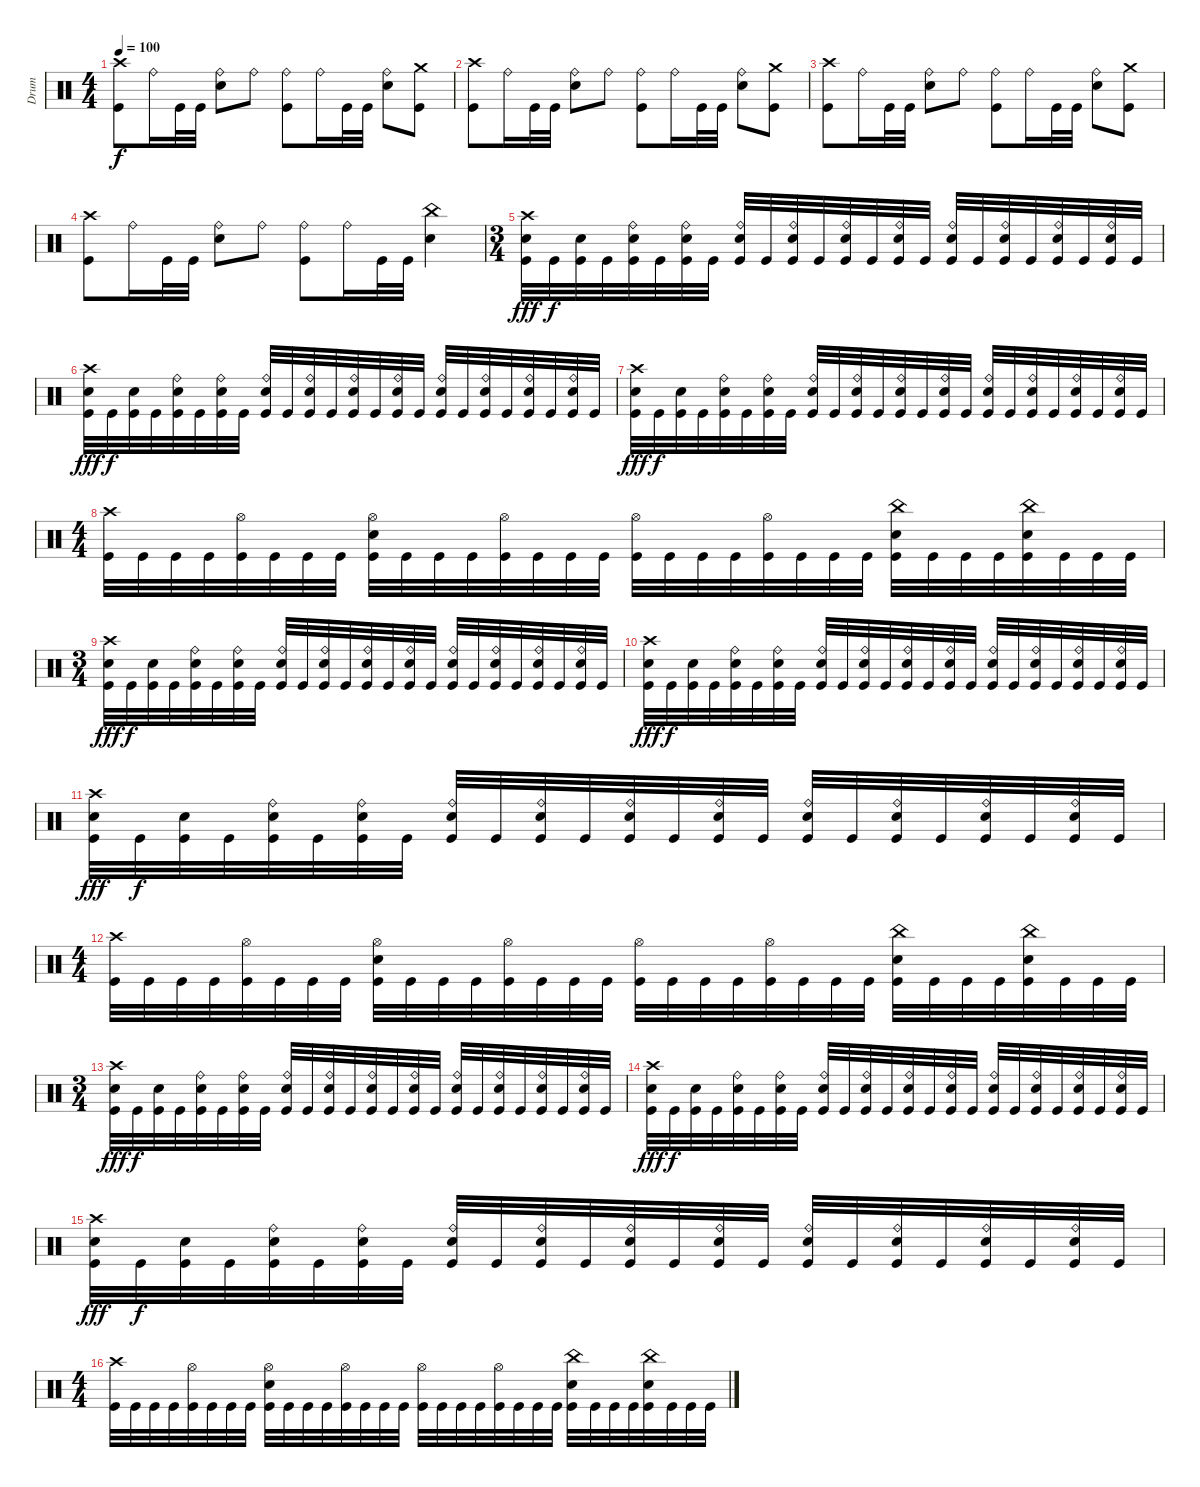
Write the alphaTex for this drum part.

\track ("Drum" "Drum") {instrument percussion}
\staff {score}
\articulation defaults
\ts (4 4)
\tempo 100
\clef neutral
\ks c
("Crash high (hit)" "Kick (hit)").8{dy f} "Ride (bell)".16 "Kick (hit)".32 "Kick (hit)".32 ("Ride (bell)" "Electric Snare (hit)").8 "Ride (bell)".8 ("Ride (bell)" "Kick (hit)").8 "Ride (bell)".16 "Kick (hit)".32 "Kick (hit)".32 ("Ride (bell)" "Electric Snare (hit)").8 ("Crash medium (hit)" "Kick (hit)").8 |
("Crash high (hit)" "Kick (hit)").8 "Ride (bell)".16 "Kick (hit)".32 "Kick (hit)".32 ("Ride (bell)" "Electric Snare (hit)").8 "Ride (bell)".8 ("Ride (bell)" "Kick (hit)").8 "Ride (bell)".16 "Kick (hit)".32 "Kick (hit)".32 ("Ride (bell)" "Electric Snare (hit)").8 ("Crash medium (hit)" "Kick (hit)").8 |
("Crash high (hit)" "Kick (hit)").8 "Ride (bell)".16 "Kick (hit)".32 "Kick (hit)".32 ("Ride (bell)" "Electric Snare (hit)").8 "Ride (bell)".8 ("Ride (bell)" "Kick (hit)").8 "Ride (bell)".16 "Kick (hit)".32 "Kick (hit)".32 ("Ride (bell)" "Electric Snare (hit)").8 ("Crash medium (hit)" "Kick (hit)").8 |
("Crash high (hit)" "Kick (hit)").8 "Ride (bell)".16 "Kick (hit)".32 "Kick (hit)".32 ("Ride (bell)" "Electric Snare (hit)").8 "Ride (bell)".8 ("Ride (bell)" "Kick (hit)").8 "Ride (bell)".16 "Kick (hit)".32 "Kick (hit)".32 ("China (hit)" "Electric Snare (hit)").4 |
\ts (3 4)
("Crash high (hit)" "Electric Snare (hit)" "Kick (hit)").32{dy fff} "Kick (hit)".32{dy f} ("Electric Snare (hit)" "Kick (hit)").32 "Kick (hit)".32 ("Ride (bell)" "Electric Snare (hit)" "Kick (hit)").32 "Kick (hit)".32 ("Ride (bell)" "Electric Snare (hit)" "Kick (hit)").32 "Kick (hit)".32 ("Ride (bell)" "Electric Snare (hit)" "Kick (hit)").32 "Kick (hit)".32 ("Ride (bell)" "Electric Snare (hit)" "Kick (hit)").32 "Kick (hit)".32 ("Ride (bell)" "Electric Snare (hit)" "Kick (hit)").32 "Kick (hit)".32 ("Ride (bell)" "Electric Snare (hit)" "Kick (hit)").32 "Kick (hit)".32 ("Ride (bell)" "Electric Snare (hit)" "Kick (hit)").32 "Kick (hit)".32 ("Ride (bell)" "Electric Snare (hit)" "Kick (hit)").32 "Kick (hit)".32 ("Ride (bell)" "Electric Snare (hit)" "Kick (hit)").32 "Kick (hit)".32 ("Ride (bell)" "Electric Snare (hit)" "Kick (hit)").32 "Kick (hit)".32 |
("Crash high (hit)" "Electric Snare (hit)" "Kick (hit)").32{dy fff} "Kick (hit)".32{dy f} ("Electric Snare (hit)" "Kick (hit)").32 "Kick (hit)".32 ("Ride (bell)" "Electric Snare (hit)" "Kick (hit)").32 "Kick (hit)".32 ("Ride (bell)" "Electric Snare (hit)" "Kick (hit)").32 "Kick (hit)".32 ("Ride (bell)" "Electric Snare (hit)" "Kick (hit)").32 "Kick (hit)".32 ("Ride (bell)" "Electric Snare (hit)" "Kick (hit)").32 "Kick (hit)".32 ("Ride (bell)" "Electric Snare (hit)" "Kick (hit)").32 "Kick (hit)".32 ("Ride (bell)" "Electric Snare (hit)" "Kick (hit)").32 "Kick (hit)".32 ("Ride (bell)" "Electric Snare (hit)" "Kick (hit)").32 "Kick (hit)".32 ("Ride (bell)" "Electric Snare (hit)" "Kick (hit)").32 "Kick (hit)".32 ("Ride (bell)" "Electric Snare (hit)" "Kick (hit)").32 "Kick (hit)".32 ("Ride (bell)" "Electric Snare (hit)" "Kick (hit)").32 "Kick (hit)".32 |
("Crash high (hit)" "Electric Snare (hit)" "Kick (hit)").32{dy fff} "Kick (hit)".32{dy f} ("Electric Snare (hit)" "Kick (hit)").32 "Kick (hit)".32 ("Ride (bell)" "Electric Snare (hit)" "Kick (hit)").32 "Kick (hit)".32 ("Ride (bell)" "Electric Snare (hit)" "Kick (hit)").32 "Kick (hit)".32 ("Ride (bell)" "Electric Snare (hit)" "Kick (hit)").32 "Kick (hit)".32 ("Ride (bell)" "Electric Snare (hit)" "Kick (hit)").32 "Kick (hit)".32 ("Ride (bell)" "Electric Snare (hit)" "Kick (hit)").32 "Kick (hit)".32 ("Ride (bell)" "Electric Snare (hit)" "Kick (hit)").32 "Kick (hit)".32 ("Ride (bell)" "Electric Snare (hit)" "Kick (hit)").32 "Kick (hit)".32 ("Ride (bell)" "Electric Snare (hit)" "Kick (hit)").32 "Kick (hit)".32 ("Ride (bell)" "Electric Snare (hit)" "Kick (hit)").32 "Kick (hit)".32 ("Ride (bell)" "Electric Snare (hit)" "Kick (hit)").32 "Kick (hit)".32 |
\ts (4 4)
("Crash high (hit)" "Kick (hit)").32 "Kick (hit)".32 "Kick (hit)".32 "Kick (hit)".32 ("Hi-Hat (open)" "Kick (hit)").32 "Kick (hit)".32 "Kick (hit)".32 "Kick (hit)".32 ("Hi-Hat (open)" "Electric Snare (hit)" "Kick (hit)").32 "Kick (hit)".32 "Kick (hit)".32 "Kick (hit)".32 ("Hi-Hat (open)" "Kick (hit)").32 "Kick (hit)".32 "Kick (hit)".32 "Kick (hit)".32 ("Hi-Hat (open)" "Kick (hit)").32 "Kick (hit)".32 "Kick (hit)".32 "Kick (hit)".32 ("Hi-Hat (open)" "Kick (hit)").32 "Kick (hit)".32 "Kick (hit)".32 "Kick (hit)".32 ("China (hit)" "Electric Snare (hit)" "Kick (hit)").32 "Kick (hit)".32 "Kick (hit)".32 "Kick (hit)".32 ("China (hit)" "Electric Snare (hit)" "Kick (hit)").32 "Kick (hit)".32 "Kick (hit)".32 "Kick (hit)".32 |
\ts (3 4)
("Crash high (hit)" "Electric Snare (hit)" "Kick (hit)").32{dy fff} "Kick (hit)".32{dy f} ("Electric Snare (hit)" "Kick (hit)").32 "Kick (hit)".32 ("Ride (bell)" "Electric Snare (hit)" "Kick (hit)").32 "Kick (hit)".32 ("Ride (bell)" "Electric Snare (hit)" "Kick (hit)").32 "Kick (hit)".32 ("Ride (bell)" "Electric Snare (hit)" "Kick (hit)").32 "Kick (hit)".32 ("Ride (bell)" "Electric Snare (hit)" "Kick (hit)").32 "Kick (hit)".32 ("Ride (bell)" "Electric Snare (hit)" "Kick (hit)").32 "Kick (hit)".32 ("Ride (bell)" "Electric Snare (hit)" "Kick (hit)").32 "Kick (hit)".32 ("Ride (bell)" "Electric Snare (hit)" "Kick (hit)").32 "Kick (hit)".32 ("Ride (bell)" "Electric Snare (hit)" "Kick (hit)").32 "Kick (hit)".32 ("Ride (bell)" "Electric Snare (hit)" "Kick (hit)").32 "Kick (hit)".32 ("Ride (bell)" "Electric Snare (hit)" "Kick (hit)").32 "Kick (hit)".32 |
("Crash high (hit)" "Electric Snare (hit)" "Kick (hit)").32{dy fff} "Kick (hit)".32{dy f} ("Electric Snare (hit)" "Kick (hit)").32 "Kick (hit)".32 ("Ride (bell)" "Electric Snare (hit)" "Kick (hit)").32 "Kick (hit)".32 ("Ride (bell)" "Electric Snare (hit)" "Kick (hit)").32 "Kick (hit)".32 ("Ride (bell)" "Electric Snare (hit)" "Kick (hit)").32 "Kick (hit)".32 ("Ride (bell)" "Electric Snare (hit)" "Kick (hit)").32 "Kick (hit)".32 ("Ride (bell)" "Electric Snare (hit)" "Kick (hit)").32 "Kick (hit)".32 ("Ride (bell)" "Electric Snare (hit)" "Kick (hit)").32 "Kick (hit)".32 ("Ride (bell)" "Electric Snare (hit)" "Kick (hit)").32 "Kick (hit)".32 ("Ride (bell)" "Electric Snare (hit)" "Kick (hit)").32 "Kick (hit)".32 ("Ride (bell)" "Electric Snare (hit)" "Kick (hit)").32 "Kick (hit)".32 ("Ride (bell)" "Electric Snare (hit)" "Kick (hit)").32 "Kick (hit)".32 |
("Crash high (hit)" "Electric Snare (hit)" "Kick (hit)").32{dy fff} "Kick (hit)".32{dy f} ("Electric Snare (hit)" "Kick (hit)").32 "Kick (hit)".32 ("Ride (bell)" "Electric Snare (hit)" "Kick (hit)").32 "Kick (hit)".32 ("Ride (bell)" "Electric Snare (hit)" "Kick (hit)").32 "Kick (hit)".32 ("Ride (bell)" "Electric Snare (hit)" "Kick (hit)").32 "Kick (hit)".32 ("Ride (bell)" "Electric Snare (hit)" "Kick (hit)").32 "Kick (hit)".32 ("Ride (bell)" "Electric Snare (hit)" "Kick (hit)").32 "Kick (hit)".32 ("Ride (bell)" "Electric Snare (hit)" "Kick (hit)").32 "Kick (hit)".32 ("Ride (bell)" "Electric Snare (hit)" "Kick (hit)").32 "Kick (hit)".32 ("Ride (bell)" "Electric Snare (hit)" "Kick (hit)").32 "Kick (hit)".32 ("Ride (bell)" "Electric Snare (hit)" "Kick (hit)").32 "Kick (hit)".32 ("Ride (bell)" "Electric Snare (hit)" "Kick (hit)").32 "Kick (hit)".32 |
\ts (4 4)
("Crash high (hit)" "Kick (hit)").32 "Kick (hit)".32 "Kick (hit)".32 "Kick (hit)".32 ("Hi-Hat (open)" "Kick (hit)").32 "Kick (hit)".32 "Kick (hit)".32 "Kick (hit)".32 ("Hi-Hat (open)" "Electric Snare (hit)" "Kick (hit)").32 "Kick (hit)".32 "Kick (hit)".32 "Kick (hit)".32 ("Hi-Hat (open)" "Kick (hit)").32 "Kick (hit)".32 "Kick (hit)".32 "Kick (hit)".32 ("Hi-Hat (open)" "Kick (hit)").32 "Kick (hit)".32 "Kick (hit)".32 "Kick (hit)".32 ("Hi-Hat (open)" "Kick (hit)").32 "Kick (hit)".32 "Kick (hit)".32 "Kick (hit)".32 ("China (hit)" "Electric Snare (hit)" "Kick (hit)").32 "Kick (hit)".32 "Kick (hit)".32 "Kick (hit)".32 ("China (hit)" "Electric Snare (hit)" "Kick (hit)").32 "Kick (hit)".32 "Kick (hit)".32 "Kick (hit)".32 |
\ts (3 4)
("Crash high (hit)" "Electric Snare (hit)" "Kick (hit)").32{dy fff} "Kick (hit)".32{dy f} ("Electric Snare (hit)" "Kick (hit)").32 "Kick (hit)".32 ("Ride (bell)" "Electric Snare (hit)" "Kick (hit)").32 "Kick (hit)".32 ("Ride (bell)" "Electric Snare (hit)" "Kick (hit)").32 "Kick (hit)".32 ("Ride (bell)" "Electric Snare (hit)" "Kick (hit)").32 "Kick (hit)".32 ("Ride (bell)" "Electric Snare (hit)" "Kick (hit)").32 "Kick (hit)".32 ("Ride (bell)" "Electric Snare (hit)" "Kick (hit)").32 "Kick (hit)".32 ("Ride (bell)" "Electric Snare (hit)" "Kick (hit)").32 "Kick (hit)".32 ("Ride (bell)" "Electric Snare (hit)" "Kick (hit)").32 "Kick (hit)".32 ("Ride (bell)" "Electric Snare (hit)" "Kick (hit)").32 "Kick (hit)".32 ("Ride (bell)" "Electric Snare (hit)" "Kick (hit)").32 "Kick (hit)".32 ("Ride (bell)" "Electric Snare (hit)" "Kick (hit)").32 "Kick (hit)".32 |
("Crash high (hit)" "Electric Snare (hit)" "Kick (hit)").32{dy fff} "Kick (hit)".32{dy f} ("Electric Snare (hit)" "Kick (hit)").32 "Kick (hit)".32 ("Ride (bell)" "Electric Snare (hit)" "Kick (hit)").32 "Kick (hit)".32 ("Ride (bell)" "Electric Snare (hit)" "Kick (hit)").32 "Kick (hit)".32 ("Ride (bell)" "Electric Snare (hit)" "Kick (hit)").32 "Kick (hit)".32 ("Ride (bell)" "Electric Snare (hit)" "Kick (hit)").32 "Kick (hit)".32 ("Ride (bell)" "Electric Snare (hit)" "Kick (hit)").32 "Kick (hit)".32 ("Ride (bell)" "Electric Snare (hit)" "Kick (hit)").32 "Kick (hit)".32 ("Ride (bell)" "Electric Snare (hit)" "Kick (hit)").32 "Kick (hit)".32 ("Ride (bell)" "Electric Snare (hit)" "Kick (hit)").32 "Kick (hit)".32 ("Ride (bell)" "Electric Snare (hit)" "Kick (hit)").32 "Kick (hit)".32 ("Ride (bell)" "Electric Snare (hit)" "Kick (hit)").32 "Kick (hit)".32 |
("Crash high (hit)" "Electric Snare (hit)" "Kick (hit)").32{dy fff} "Kick (hit)".32{dy f} ("Electric Snare (hit)" "Kick (hit)").32 "Kick (hit)".32 ("Ride (bell)" "Electric Snare (hit)" "Kick (hit)").32 "Kick (hit)".32 ("Ride (bell)" "Electric Snare (hit)" "Kick (hit)").32 "Kick (hit)".32 ("Ride (bell)" "Electric Snare (hit)" "Kick (hit)").32 "Kick (hit)".32 ("Ride (bell)" "Electric Snare (hit)" "Kick (hit)").32 "Kick (hit)".32 ("Ride (bell)" "Electric Snare (hit)" "Kick (hit)").32 "Kick (hit)".32 ("Ride (bell)" "Electric Snare (hit)" "Kick (hit)").32 "Kick (hit)".32 ("Ride (bell)" "Electric Snare (hit)" "Kick (hit)").32 "Kick (hit)".32 ("Ride (bell)" "Electric Snare (hit)" "Kick (hit)").32 "Kick (hit)".32 ("Ride (bell)" "Electric Snare (hit)" "Kick (hit)").32 "Kick (hit)".32 ("Ride (bell)" "Electric Snare (hit)" "Kick (hit)").32 "Kick (hit)".32 |
\ts (4 4)
("Crash high (hit)" "Kick (hit)").32 "Kick (hit)".32 "Kick (hit)".32 "Kick (hit)".32 ("Hi-Hat (open)" "Kick (hit)").32 "Kick (hit)".32 "Kick (hit)".32 "Kick (hit)".32 ("Hi-Hat (open)" "Electric Snare (hit)" "Kick (hit)").32 "Kick (hit)".32 "Kick (hit)".32 "Kick (hit)".32 ("Hi-Hat (open)" "Kick (hit)").32 "Kick (hit)".32 "Kick (hit)".32 "Kick (hit)".32 ("Hi-Hat (open)" "Kick (hit)").32 "Kick (hit)".32 "Kick (hit)".32 "Kick (hit)".32 ("Hi-Hat (open)" "Kick (hit)").32 "Kick (hit)".32 "Kick (hit)".32 "Kick (hit)".32 ("China (hit)" "Electric Snare (hit)" "Kick (hit)").32 "Kick (hit)".32 "Kick (hit)".32 "Kick (hit)".32 ("China (hit)" "Electric Snare (hit)" "Kick (hit)").32 "Kick (hit)".32 "Kick (hit)".32 "Kick (hit)".32
